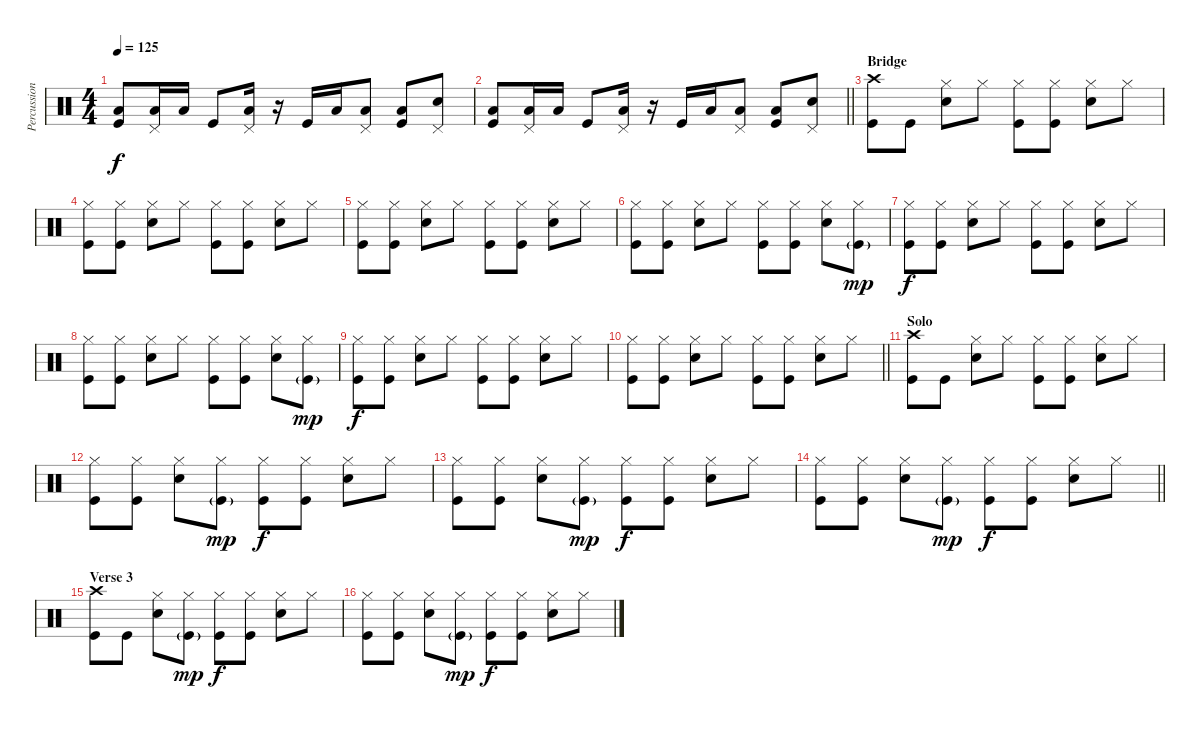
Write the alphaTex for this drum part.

\track ("Percussion" "Percussion") {instrument percussion}
\staff {score}
\articulation defaults
\ts (4 4)
\tempo 125
\clef neutral
\ks c
("Low Tom (hit)" "Kick (hit)").8{dy f} ("Low Tom (hit)" "Pedal Hi-Hat (hit)").16 "Low Tom (hit)".16 "Kick (hit)".8 ("Low Floor Tom (hit)" "Pedal Hi-Hat (hit)").16 r.16 "Kick (hit)".16 "Low Tom (hit)".16 ("Low Tom (hit)" "Pedal Hi-Hat (hit)").8 ("Low Tom (hit)" "Kick (hit)").8 ("Snare (hit) 2" "Pedal Hi-Hat (hit)").8 |
\barLineRight lightlight
("Low Tom (hit)" "Kick (hit)").8 ("Low Tom (hit)" "Pedal Hi-Hat (hit)").16 "Low Tom (hit)".16 "Kick (hit)".8 ("Low Floor Tom (hit)" "Pedal Hi-Hat (hit)").16 r.16 "Kick (hit)".16 "Low Tom (hit)".16 ("Low Tom (hit)" "Pedal Hi-Hat (hit)").8 ("Low Tom (hit)" "Kick (hit)").8 ("Snare (hit) 2" "Pedal Hi-Hat (hit)").8 |
\section ("" "Bridge")
("Crash high (hit)" "Kick (hit)").8 "Kick (hit)".8 ("Hi-Hat (closed)" "Snare (hit) 2").8 "Hi-Hat (closed)".8 ("Hi-Hat (closed)" "Kick (hit)").8 ("Hi-Hat (closed)" "Kick (hit)").8 ("Hi-Hat (closed)" "Snare (hit) 2").8 "Hi-Hat (closed)".8 |
("Hi-Hat (closed)" "Kick (hit)").8 ("Hi-Hat (closed)" "Kick (hit)").8 ("Hi-Hat (closed)" "Snare (hit) 2").8 "Hi-Hat (closed)".8 ("Hi-Hat (closed)" "Kick (hit)").8 ("Hi-Hat (closed)" "Kick (hit)").8 ("Hi-Hat (closed)" "Snare (hit) 2").8 "Hi-Hat (closed)".8 |
("Hi-Hat (closed)" "Kick (hit)").8 ("Hi-Hat (closed)" "Kick (hit)").8 ("Hi-Hat (closed)" "Snare (hit) 2").8 "Hi-Hat (closed)".8 ("Hi-Hat (closed)" "Kick (hit)").8 ("Hi-Hat (closed)" "Kick (hit)").8 ("Hi-Hat (closed)" "Snare (hit) 2").8 "Hi-Hat (closed)".8 |
("Hi-Hat (closed)" "Kick (hit)").8 ("Hi-Hat (closed)" "Kick (hit)").8 ("Hi-Hat (closed)" "Snare (hit) 2").8 "Hi-Hat (closed)".8 ("Hi-Hat (closed)" "Kick (hit)").8 ("Hi-Hat (closed)" "Kick (hit)").8 ("Hi-Hat (closed)" "Snare (hit) 2").8 ("Hi-Hat (closed)" "Kick (hit)"{g}).8{dy mp} |
("Hi-Hat (closed)" "Kick (hit)").8{dy f} ("Hi-Hat (closed)" "Kick (hit)").8 ("Hi-Hat (closed)" "Snare (hit) 2").8 "Hi-Hat (closed)".8 ("Hi-Hat (closed)" "Kick (hit)").8 ("Hi-Hat (closed)" "Kick (hit)").8 ("Hi-Hat (closed)" "Snare (hit) 2").8 "Hi-Hat (closed)".8 |
("Hi-Hat (closed)" "Kick (hit)").8 ("Hi-Hat (closed)" "Kick (hit)").8 ("Hi-Hat (closed)" "Snare (hit) 2").8 "Hi-Hat (closed)".8 ("Hi-Hat (closed)" "Kick (hit)").8 ("Hi-Hat (closed)" "Kick (hit)").8 ("Hi-Hat (closed)" "Snare (hit) 2").8 ("Hi-Hat (closed)" "Kick (hit)"{g}).8{dy mp} |
("Hi-Hat (closed)" "Kick (hit)").8{dy f} ("Hi-Hat (closed)" "Kick (hit)").8 ("Hi-Hat (closed)" "Snare (hit) 2").8 "Hi-Hat (closed)".8 ("Hi-Hat (closed)" "Kick (hit)").8 ("Hi-Hat (closed)" "Kick (hit)").8 ("Hi-Hat (closed)" "Snare (hit) 2").8 "Hi-Hat (closed)".8 |
\barLineRight lightlight
("Hi-Hat (closed)" "Kick (hit)").8 ("Hi-Hat (closed)" "Kick (hit)").8 ("Hi-Hat (closed)" "Snare (hit) 2").8 "Hi-Hat (closed)".8 ("Hi-Hat (closed)" "Kick (hit)").8 ("Hi-Hat (closed)" "Kick (hit)").8 ("Hi-Hat (closed)" "Snare (hit) 2").8 "Hi-Hat (closed)".8 |
\section ("" "Solo")
("Crash high (hit)" "Kick (hit)").8 "Kick (hit)".8 ("Hi-Hat (closed)" "Snare (hit) 2").8 "Hi-Hat (closed)".8 ("Hi-Hat (closed)" "Kick (hit)").8 ("Hi-Hat (closed)" "Kick (hit)").8 ("Hi-Hat (closed)" "Snare (hit) 2").8 "Hi-Hat (closed)".8 |
("Hi-Hat (closed)" "Kick (hit)").8 ("Hi-Hat (closed)" "Kick (hit)").8 ("Hi-Hat (closed)" "Snare (hit) 2").8 ("Hi-Hat (closed)" "Kick (hit)"{g}).8{dy mp} ("Hi-Hat (closed)" "Kick (hit)").8{dy f} ("Hi-Hat (closed)" "Kick (hit)").8 ("Hi-Hat (closed)" "Snare (hit) 2").8 "Hi-Hat (closed)".8 |
("Hi-Hat (closed)" "Kick (hit)").8 ("Hi-Hat (closed)" "Kick (hit)").8 ("Hi-Hat (closed)" "Snare (hit) 2").8 ("Hi-Hat (closed)" "Kick (hit)"{g}).8{dy mp} ("Hi-Hat (closed)" "Kick (hit)").8{dy f} ("Hi-Hat (closed)" "Kick (hit)").8 ("Hi-Hat (closed)" "Snare (hit) 2").8 "Hi-Hat (closed)".8 |
\barLineRight lightlight
("Hi-Hat (closed)" "Kick (hit)").8 ("Hi-Hat (closed)" "Kick (hit)").8 ("Hi-Hat (closed)" "Snare (hit) 2").8 ("Hi-Hat (closed)" "Kick (hit)"{g}).8{dy mp} ("Hi-Hat (closed)" "Kick (hit)").8{dy f} ("Hi-Hat (closed)" "Kick (hit)").8 ("Hi-Hat (closed)" "Snare (hit) 2").8 "Hi-Hat (closed)".8 |
\section ("" "Verse 3")
("Crash high (hit)" "Kick (hit)").8 "Kick (hit)".8 ("Hi-Hat (closed)" "Snare (hit) 2").8 ("Hi-Hat (closed)" "Kick (hit)"{g}).8{dy mp} ("Hi-Hat (closed)" "Kick (hit)").8{dy f} ("Hi-Hat (closed)" "Kick (hit)").8 ("Hi-Hat (closed)" "Snare (hit) 2").8 "Hi-Hat (closed)".8 |
("Hi-Hat (closed)" "Kick (hit)").8 ("Hi-Hat (closed)" "Kick (hit)").8 ("Hi-Hat (closed)" "Snare (hit) 2").8 ("Hi-Hat (closed)" "Kick (hit)"{g}).8{dy mp} ("Hi-Hat (closed)" "Kick (hit)").8{dy f} ("Hi-Hat (closed)" "Kick (hit)").8 ("Hi-Hat (closed)" "Snare (hit) 2").8 "Hi-Hat (closed)".8
